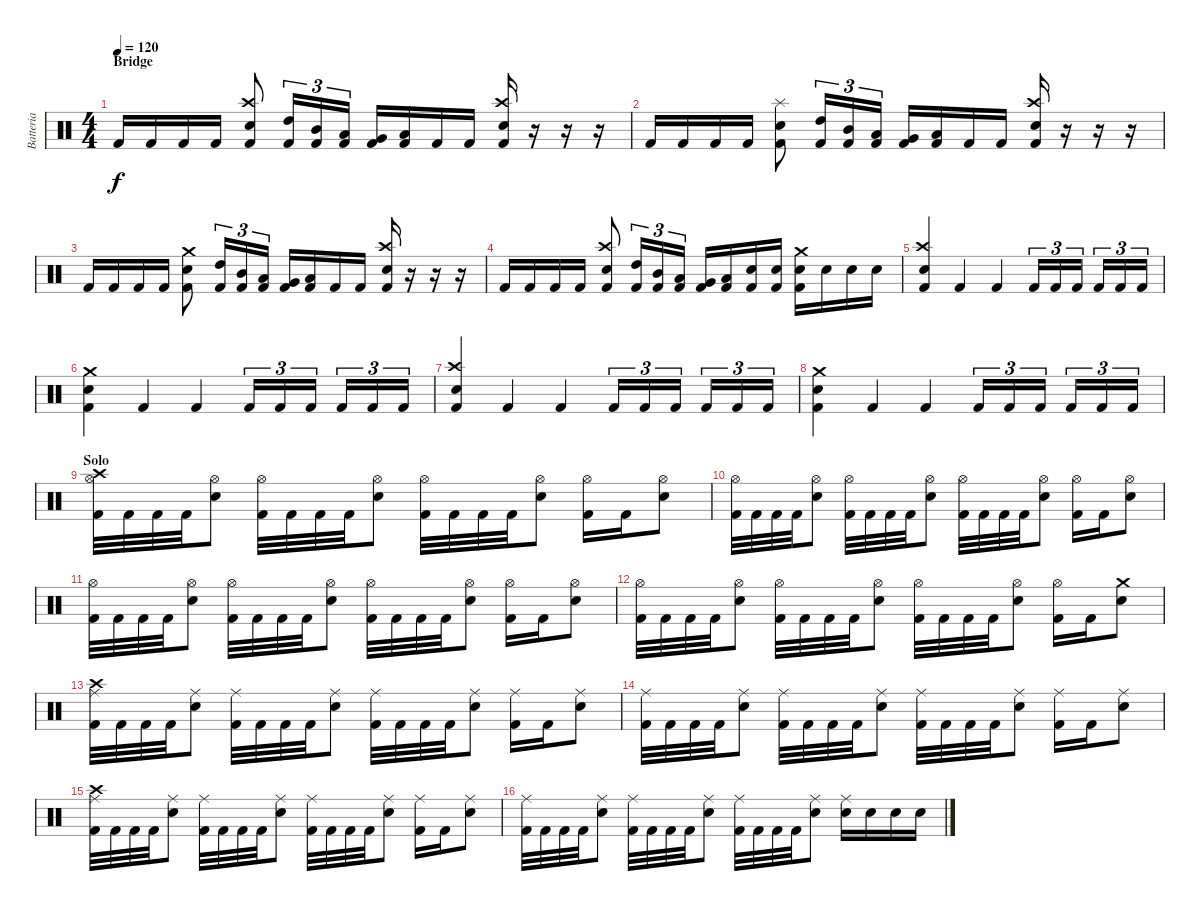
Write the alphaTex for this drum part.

\track ("Batteria" "Batteria") {instrument percussion}
\staff {score}
\articulation defaults
\ts (4 4)
\section ("" "Bridge")
\tempo 120
\clef neutral
\ks c "Kick (hit) 2".16{dy f} "Kick (hit) 2".16 "Kick (hit) 2".16 "Kick (hit) 2".16
("Crash high (hit)" "Snare (hit) 2" "Kick (hit) 2").8 ("High Tom (hit)" "Kick (hit) 2").16{tu (3 2)} ("Mid Tom (hit)" "Kick (hit) 2").16{tu (3 2)} ("Low Tom (hit)" "Kick (hit) 2").16{tu (3 2)} ("Very Low Tom (hit)" "Kick (hit) 2").16 ("Low Floor Tom (hit)" "Kick (hit) 2").16 "Kick (hit) 2".16 "Kick (hit) 2".16 ("Crash high (hit)" "Snare (hit) 2" "Kick (hit) 2").16 r.16 r.16 r.16 |
"Kick (hit) 2".16 "Kick (hit) 2".16 "Kick (hit) 2".16 "Kick (hit) 2".16 ("Splash (hit)" "Snare (hit) 2" "Kick (hit) 2").8 ("High Tom (hit)" "Kick (hit) 2").16{tu (3 2)} ("Mid Tom (hit)" "Kick (hit) 2").16{tu (3 2)} ("Low Tom (hit)" "Kick (hit) 2").16{tu (3 2)} ("Very Low Tom (hit)" "Kick (hit) 2").16 ("Low Floor Tom (hit)" "Kick (hit) 2").16 "Kick (hit) 2".16 "Kick (hit) 2".16 ("Crash high (hit)" "Snare (hit) 2" "Kick (hit) 2").16 r.16 r.16 r.16 |
"Kick (hit) 2".16 "Kick (hit) 2".16 "Kick (hit) 2".16 "Kick (hit) 2".16 ("Crash medium (hit)" "Snare (hit) 2" "Kick (hit) 2").8 ("High Tom (hit)" "Kick (hit) 2").16{tu (3 2)} ("Mid Tom (hit)" "Kick (hit) 2").16{tu (3 2)} ("Low Tom (hit)" "Kick (hit) 2").16{tu (3 2)} ("Very Low Tom (hit)" "Kick (hit) 2").16 ("Low Floor Tom (hit)" "Kick (hit) 2").16 "Kick (hit) 2".16 "Kick (hit) 2".16 ("Crash high (hit)" "Snare (hit) 2" "Kick (hit) 2").16 r.16 r.16 r.16 |
"Kick (hit) 2".16 "Kick (hit) 2".16 "Kick (hit) 2".16 "Kick (hit) 2".16 ("Crash high (hit)" "Snare (hit) 2" "Kick (hit) 2").8 ("High Tom (hit)" "Kick (hit) 2").16{tu (3 2)} ("Mid Tom (hit)" "Kick (hit) 2").16{tu (3 2)} ("Low Tom (hit)" "Kick (hit) 2").16{tu (3 2)} ("Very Low Tom (hit)" "Kick (hit) 2").16 ("Low Floor Tom (hit)" "Kick (hit) 2").16 ("Snare (hit) 2" "Kick (hit) 2").16 ("Snare (hit) 2" "Kick (hit) 2").16 ("Crash medium (hit)" "Snare (hit) 2" "Kick (hit) 2").16 "Snare (hit) 2".16 "Snare (hit) 2".16 "Snare (hit) 2".16 |
("Crash high (hit)" "Snare (hit) 2" "Kick (hit) 2").4 "Kick (hit) 2".4 "Kick (hit) 2".4 "Kick (hit) 2".16{tu (3 2)} "Kick (hit) 2".16{tu (3 2)} "Kick (hit) 2".16{tu (3 2)} "Kick (hit) 2".16{tu (3 2)} "Kick (hit) 2".16{tu (3 2)} "Kick (hit) 2".16{tu (3 2)} |
("Crash medium (hit)" "Snare (hit) 2" "Kick (hit) 2").4 "Kick (hit) 2".4 "Kick (hit) 2".4 "Kick (hit) 2".16{tu (3 2)} "Kick (hit) 2".16{tu (3 2)} "Kick (hit) 2".16{tu (3 2)} "Kick (hit) 2".16{tu (3 2)} "Kick (hit) 2".16{tu (3 2)} "Kick (hit) 2".16{tu (3 2)} |
("Crash high (hit)" "Snare (hit) 2" "Kick (hit) 2").4 "Kick (hit) 2".4 "Kick (hit) 2".4 "Kick (hit) 2".16{tu (3 2)} "Kick (hit) 2".16{tu (3 2)} "Kick (hit) 2".16{tu (3 2)} "Kick (hit) 2".16{tu (3 2)} "Kick (hit) 2".16{tu (3 2)} "Kick (hit) 2".16{tu (3 2)} |
("Crash medium (hit)" "Snare (hit) 2" "Kick (hit) 2").4 "Kick (hit) 2".4 "Kick (hit) 2".4 "Kick (hit) 2".16{tu (3 2)} "Kick (hit) 2".16{tu (3 2)} "Kick (hit) 2".16{tu (3 2)} "Kick (hit) 2".16{tu (3 2)} "Kick (hit) 2".16{tu (3 2)} "Kick (hit) 2".16{tu (3 2)} |
\section ("" "Solo")
("Hi-Hat (open)" "Crash high (hit)" "Kick (hit) 2").32 "Kick (hit) 2".32 "Kick (hit) 2".32 "Kick (hit) 2".32 ("Hi-Hat (open)" "Snare (hit) 2").8 ("Hi-Hat (open)" "Kick (hit) 2").32 "Kick (hit) 2".32 "Kick (hit) 2".32 "Kick (hit) 2".32 ("Hi-Hat (open)" "Snare (hit) 2").8 ("Hi-Hat (open)" "Kick (hit) 2").32 "Kick (hit) 2".32 "Kick (hit) 2".32 "Kick (hit) 2".32 ("Hi-Hat (open)" "Snare (hit) 2").8 ("Hi-Hat (open)" "Kick (hit) 2").16 "Kick (hit) 2".16 ("Hi-Hat (open)" "Snare (hit) 2").8 |
("Hi-Hat (open)" "Kick (hit) 2").32 "Kick (hit) 2".32 "Kick (hit) 2".32 "Kick (hit) 2".32 ("Hi-Hat (open)" "Snare (hit) 2").8 ("Hi-Hat (open)" "Kick (hit) 2").32 "Kick (hit) 2".32 "Kick (hit) 2".32 "Kick (hit) 2".32 ("Hi-Hat (open)" "Snare (hit) 2").8 ("Hi-Hat (open)" "Kick (hit) 2").32 "Kick (hit) 2".32 "Kick (hit) 2".32 "Kick (hit) 2".32 ("Hi-Hat (open)" "Snare (hit) 2").8 ("Hi-Hat (open)" "Kick (hit) 2").16 "Kick (hit) 2".16 ("Hi-Hat (open)" "Snare (hit) 2").8 |
("Hi-Hat (open)" "Kick (hit) 2").32 "Kick (hit) 2".32 "Kick (hit) 2".32 "Kick (hit) 2".32 ("Hi-Hat (open)" "Snare (hit) 2").8 ("Hi-Hat (open)" "Kick (hit) 2").32 "Kick (hit) 2".32 "Kick (hit) 2".32 "Kick (hit) 2".32 ("Hi-Hat (open)" "Snare (hit) 2").8 ("Hi-Hat (open)" "Kick (hit) 2").32 "Kick (hit) 2".32 "Kick (hit) 2".32 "Kick (hit) 2".32 ("Hi-Hat (open)" "Snare (hit) 2").8 ("Hi-Hat (open)" "Kick (hit) 2").16 "Kick (hit) 2".16 ("Hi-Hat (open)" "Snare (hit) 2").8 |
("Hi-Hat (open)" "Kick (hit) 2").32 "Kick (hit) 2".32 "Kick (hit) 2".32 "Kick (hit) 2".32 ("Hi-Hat (open)" "Snare (hit) 2").8 ("Hi-Hat (open)" "Kick (hit) 2").32 "Kick (hit) 2".32 "Kick (hit) 2".32 "Kick (hit) 2".32 ("Hi-Hat (open)" "Snare (hit) 2").8 ("Hi-Hat (open)" "Kick (hit) 2").32 "Kick (hit) 2".32 "Kick (hit) 2".32 "Kick (hit) 2".32 ("Hi-Hat (open)" "Snare (hit) 2").8 ("Hi-Hat (open)" "Kick (hit) 2").16 "Kick (hit) 2".16 ("Crash medium (hit)" "Snare (hit) 2").8 |
("Ride (middle)" "Crash high (hit)" "Kick (hit) 2").32 "Kick (hit) 2".32 "Kick (hit) 2".32 "Kick (hit) 2".32 ("Ride (middle)" "Snare (hit) 2").8 ("Ride (middle)" "Kick (hit) 2").32 "Kick (hit) 2".32 "Kick (hit) 2".32 "Kick (hit) 2".32 ("Ride (middle)" "Snare (hit) 2").8 ("Ride (middle)" "Kick (hit) 2").32 "Kick (hit) 2".32 "Kick (hit) 2".32 "Kick (hit) 2".32 ("Ride (middle)" "Snare (hit) 2").8 ("Ride (middle)" "Kick (hit) 2").16 "Kick (hit) 2".16 ("Ride (middle)" "Snare (hit) 2").8 |
("Ride (middle)" "Kick (hit) 2").32 "Kick (hit) 2".32 "Kick (hit) 2".32 "Kick (hit) 2".32 ("Ride (middle)" "Snare (hit) 2").8 ("Ride (middle)" "Kick (hit) 2").32 "Kick (hit) 2".32 "Kick (hit) 2".32 "Kick (hit) 2".32 ("Ride (middle)" "Snare (hit) 2").8 ("Ride (middle)" "Kick (hit) 2").32 "Kick (hit) 2".32 "Kick (hit) 2".32 "Kick (hit) 2".32 ("Ride (middle)" "Snare (hit) 2").8 ("Ride (middle)" "Kick (hit) 2").16 "Kick (hit) 2".16 ("Ride (middle)" "Snare (hit) 2").8 |
("Ride (middle)" "Crash high (hit)" "Kick (hit) 2").32 "Kick (hit) 2".32 "Kick (hit) 2".32 "Kick (hit) 2".32 ("Ride (middle)" "Snare (hit) 2").8 ("Ride (middle)" "Kick (hit) 2").32 "Kick (hit) 2".32 "Kick (hit) 2".32 "Kick (hit) 2".32 ("Ride (middle)" "Snare (hit) 2").8 ("Ride (middle)" "Kick (hit) 2").32 "Kick (hit) 2".32 "Kick (hit) 2".32 "Kick (hit) 2".32 ("Ride (middle)" "Snare (hit) 2").8 ("Ride (middle)" "Kick (hit) 2").16 "Kick (hit) 2".16 ("Ride (middle)" "Snare (hit) 2").8 |
("Ride (middle)" "Kick (hit) 2").32 "Kick (hit) 2".32 "Kick (hit) 2".32 "Kick (hit) 2".32 ("Ride (middle)" "Snare (hit) 2").8 ("Ride (middle)" "Kick (hit) 2").32 "Kick (hit) 2".32 "Kick (hit) 2".32 "Kick (hit) 2".32 ("Ride (middle)" "Snare (hit) 2").8 ("Ride (middle)" "Kick (hit) 2").32 "Kick (hit) 2".32 "Kick (hit) 2".32 "Kick (hit) 2".32 ("Ride (middle)" "Snare (hit) 2").8 ("Ride (middle)" "Snare (hit) 2").16 "Snare (hit) 2".16 "Snare (hit) 2".16 "Snare (hit) 2".16
